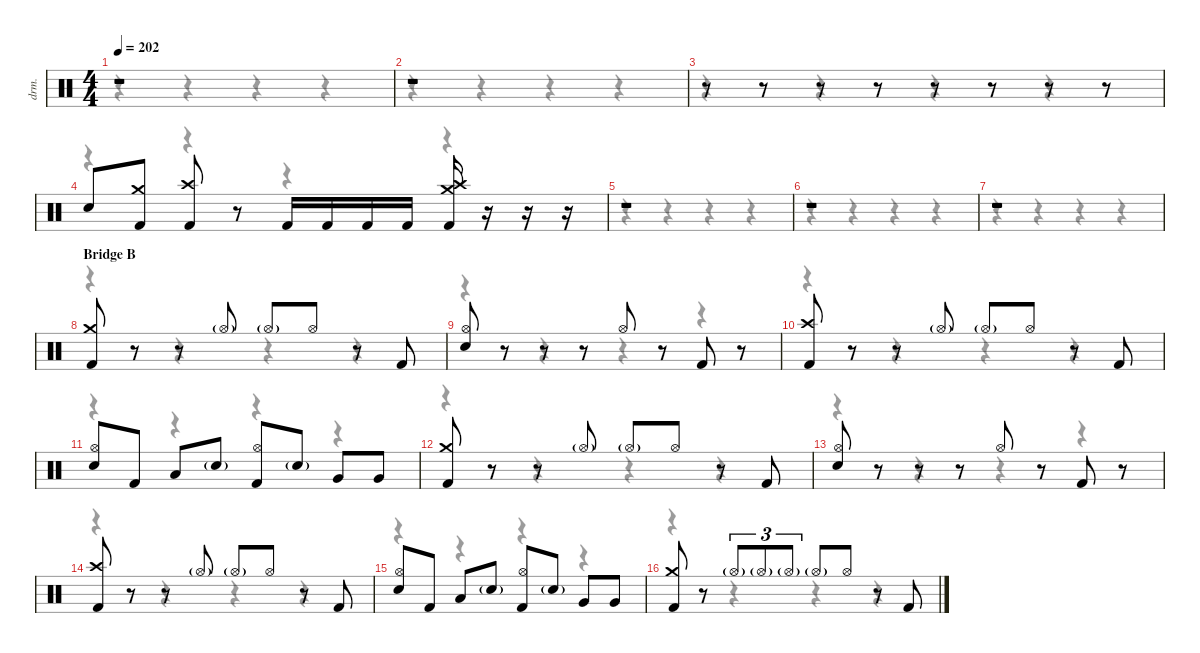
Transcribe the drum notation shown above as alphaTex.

\defaultSystemsLayout 4
\hideDynamics
\bracketExtendMode nobrackets
\track ("Alex Ballew" "drm.") {instrument percussion}
\staff {score}
\articulation defaults
\voice
\ts (4 4)
\tempo 202
\clef neutral
\ks c
r.1{dy f beam Up} |
r.1{beam Up} |
r.8{beam Up} r.8{beam Up} r.8{beam Up} r.8{beam Up} r.8{beam Up} r.8{beam Up} r.8{beam Up} r.8{beam Up} |
"Snare (hit) 2".8{beam Up} ("Crash medium (hit)" "Kick (hit) 2").8{beam Up} ("Crash high (hit)" "Kick (hit) 2").8{beam Up} r.8{beam Up} "Kick (hit) 2".16{beam Up} "Kick (hit) 2".16{beam Up} "Kick (hit) 2".16{beam Up} "Kick (hit) 2".16{beam Up} ("Crash medium (hit)" "Crash high (hit)" "Kick (hit) 2").16{beam Up} r.16{beam Up} r.16{beam Up} r.16{beam Up} |
r.1{beam Up} |
r.1{beam Up} |
r.1{beam Up} |
\section ("" "Bridge B")
("Crash medium (hit)" "Kick (hit) 2").8{beam Up} r.8{beam Up} r.8{beam Up} "Hi-Hat (open)"{g}.8{dy mf beam Up} "Hi-Hat (open)"{g}.8{dy f beam Up} "Hi-Hat (open)".8{beam Up} r.8{beam Up} "Kick (hit) 2".8{beam Up} |
("Hi-Hat (open)" "Snare (hit) 2").8{beam Up} r.8{beam Up} r.8{beam Up} r.8{beam Up} "Hi-Hat (open)".8{beam Up} r.8{beam Up} "Kick (hit) 2".8{beam Up} r.8{beam Up} |
("Crash high (hit)" "Kick (hit) 2").8{beam Up} r.8{beam Up} r.8{beam Up} "Hi-Hat (open)"{g}.8{dy mf beam Up} "Hi-Hat (open)"{g}.8{dy f beam Up} "Hi-Hat (open)".8{beam Up} r.8{beam Up} "Kick (hit) 2".8{beam Up} |
("Hi-Hat (open)" "Snare (hit) 2").8{beam Up} "Kick (hit) 2".8{beam Up} "Low Tom (hit)".8{beam Up} "Snare (hit) 2"{g}.8{beam Up} ("Hi-Hat (open)" "Kick (hit) 2").8{beam Up} "Snare (hit) 2"{g}.8{beam Up} "Very Low Tom (hit)".8{beam Up} "Very Low Tom (hit)".8{beam Up} |
("Crash medium (hit)" "Kick (hit) 2").8{beam Up} r.8{beam Up} r.8{beam Up} "Hi-Hat (open)"{g}.8{dy mf beam Up} "Hi-Hat (open)"{g}.8{dy f beam Up} "Hi-Hat (open)".8{beam Up} r.8{beam Up} "Kick (hit) 2".8{beam Up} |
("Hi-Hat (open)" "Snare (hit) 2").8{beam Up} r.8{beam Up} r.8{beam Up} r.8{beam Up} "Hi-Hat (open)".8{beam Up} r.8{beam Up} "Kick (hit) 2".8{beam Up} r.8{beam Up} |
("Crash high (hit)" "Kick (hit) 2").8{beam Up} r.8{beam Up} r.8{beam Up} "Hi-Hat (open)"{g}.8{dy mf beam Up} "Hi-Hat (open)"{g}.8{dy f beam Up} "Hi-Hat (open)".8{beam Up} r.8{beam Up} "Kick (hit) 2".8{beam Up} |
("Hi-Hat (open)" "Snare (hit) 2").8{beam Up} "Kick (hit) 2".8{beam Up} "Low Tom (hit)".8{beam Up} "Snare (hit) 2"{g}.8{beam Up} ("Hi-Hat (open)" "Kick (hit) 2").8{beam Up} "Snare (hit) 2"{g}.8{beam Up} "Very Low Tom (hit)".8{beam Up} "Very Low Tom (hit)".8{beam Up} |
("Crash medium (hit)" "Kick (hit) 2").8{beam Up} r.8{beam Up} "Hi-Hat (open)"{g}.8{tu (3 2) dy mf beam Up} "Hi-Hat (open)"{g}.8{tu (3 2) beam Up} "Hi-Hat (open)"{g}.8{tu (3 2) beam Up} "Hi-Hat (open)"{g}.8{dy f beam Up} "Hi-Hat (open)".8{beam Up} r.8{beam Up} "Kick (hit) 2".8{beam Up}
\voice
\clef neutral
\ottava regular
\simile none
\ks c
r.4{dy mf beam Down} r.4{beam Down} r.4{beam Down} r.4{beam Down} |
r.4{beam Down} r.4{beam Down} r.4{beam Down} r.4{beam Down} |
r.4{beam Down} r.4{beam Down} r.4{beam Down} r.4{beam Down} |
r.4{beam Down} r.4{beam Down} r.4{beam Down} r.4{beam Down} |
r.4{beam Down} r.4{beam Down} r.4{beam Down} r.4{beam Down} |
r.4{beam Down} r.4{beam Down} r.4{beam Down} r.4{beam Down} |
r.4{beam Down} r.4{beam Down} r.4{beam Down} r.4{beam Down} |
r.4{beam Down} r.4{beam Down} r.4{beam Down} r.4{beam Down} |
r.4{beam Down} r.4{beam Down} r.4{beam Down} r.4{beam Down} |
r.4{beam Down} r.4{beam Down} r.4{beam Down} r.4{beam Down} |
r.4{beam Down} r.4{beam Down} r.4{beam Down} r.4{beam Down} |
r.4{beam Down} r.4{beam Down} r.4{beam Down} r.4{beam Down} |
r.4{beam Down} r.4{beam Down} r.4{beam Down} r.4{beam Down} |
r.4{beam Down} r.4{beam Down} r.4{beam Down} r.4{beam Down} |
r.4{beam Down} r.4{beam Down} r.4{beam Down} r.4{beam Down} |
r.4{beam Down} r.4{beam Down} r.4{beam Down} r.4{beam Down}
